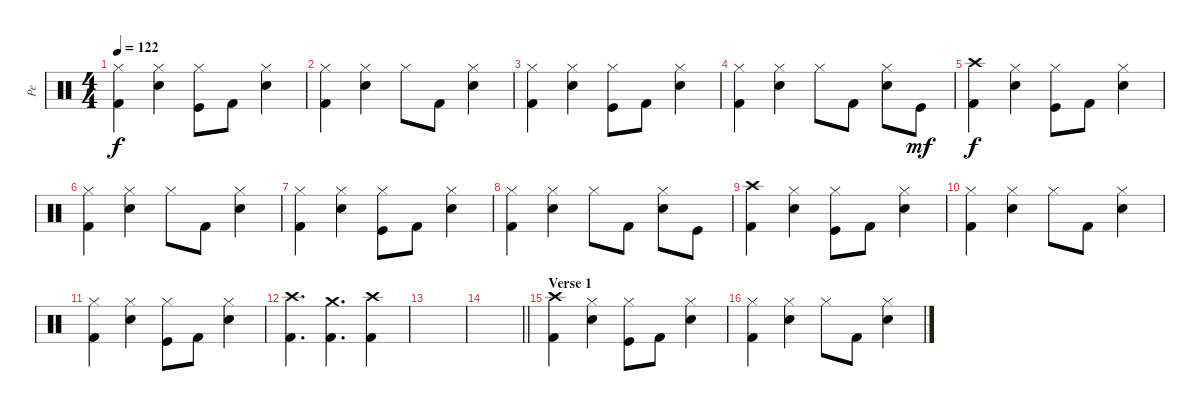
\track ("Pe" "Pe") {instrument percussion}
\staff {score}
\articulation defaults
\ts (4 4)
\tempo 122
\clef neutral
\ks c
("Kick (hit) 2" "Hi-Hat (closed)").4{dy f} ("Electric Snare (hit)" "Hi-Hat (closed)").4 ("Kick (hit)" "Hi-Hat (closed)").8 "Kick (hit) 2".8 ("Electric Snare (hit)" "Hi-Hat (closed)").4 |
("Kick (hit) 2" "Hi-Hat (closed)").4 ("Electric Snare (hit)" "Hi-Hat (closed)").4 "Hi-Hat (closed)".8 "Kick (hit) 2".8 ("Electric Snare (hit)" "Hi-Hat (closed)").4 |
("Kick (hit) 2" "Hi-Hat (closed)").4 ("Electric Snare (hit)" "Hi-Hat (closed)").4 ("Kick (hit)" "Hi-Hat (closed)").8 "Kick (hit) 2".8 ("Electric Snare (hit)" "Hi-Hat (closed)").4 |
("Kick (hit) 2" "Hi-Hat (closed)").4 ("Electric Snare (hit)" "Hi-Hat (closed)").4 "Hi-Hat (closed)".8 "Kick (hit) 2".8 ("Electric Snare (hit)" "Hi-Hat (closed)").8 "Kick (hit)".8{dy mf} |
("Kick (hit) 2" "Crash high (hit)").4{dy f} ("Electric Snare (hit)" "Hi-Hat (closed)").4 ("Kick (hit)" "Hi-Hat (closed)").8 "Kick (hit) 2".8 ("Electric Snare (hit)" "Hi-Hat (closed)").4 |
("Kick (hit) 2" "Hi-Hat (closed)").4 ("Electric Snare (hit)" "Hi-Hat (closed)").4 "Hi-Hat (closed)".8 "Kick (hit) 2".8 ("Electric Snare (hit)" "Hi-Hat (closed)").4 |
("Kick (hit) 2" "Hi-Hat (closed)").4 ("Electric Snare (hit)" "Hi-Hat (closed)").4 ("Kick (hit)" "Hi-Hat (closed)").8 "Kick (hit) 2".8 ("Electric Snare (hit)" "Hi-Hat (closed)").4 |
("Kick (hit) 2" "Hi-Hat (closed)").4 ("Electric Snare (hit)" "Hi-Hat (closed)").4 "Hi-Hat (closed)".8 "Kick (hit) 2".8 ("Electric Snare (hit)" "Hi-Hat (closed)").8 "Kick (hit)".8 |
("Kick (hit) 2" "Crash high (hit)").4 ("Electric Snare (hit)" "Hi-Hat (closed)").4 ("Kick (hit)" "Hi-Hat (closed)").8 "Kick (hit) 2".8 ("Electric Snare (hit)" "Hi-Hat (closed)").4 |
("Kick (hit) 2" "Hi-Hat (closed)").4 ("Electric Snare (hit)" "Hi-Hat (closed)").4 "Hi-Hat (closed)".8 "Kick (hit) 2".8 ("Electric Snare (hit)" "Hi-Hat (closed)").4 |
("Kick (hit) 2" "Hi-Hat (closed)").4 ("Electric Snare (hit)" "Hi-Hat (closed)").4 ("Kick (hit)" "Hi-Hat (closed)").8 "Kick (hit) 2".8 ("Electric Snare (hit)" "Hi-Hat (closed)").4 |
("Kick (hit) 2" "Crash high (hit)").4{d} ("Kick (hit) 2" "Crash medium (hit)").4{d} ("Kick (hit) 2" "Crash high (hit)").4 |
|
\barLineRight lightlight
|
\section ("" "Verse 1")
("Kick (hit) 2" "Crash high (hit)").4 ("Electric Snare (hit)" "Hi-Hat (closed)").4 ("Kick (hit)" "Hi-Hat (closed)").8 "Kick (hit) 2".8 ("Electric Snare (hit)" "Hi-Hat (closed)").4 |
("Kick (hit) 2" "Hi-Hat (closed)").4 ("Electric Snare (hit)" "Hi-Hat (closed)").4 "Hi-Hat (closed)".8 "Kick (hit) 2".8 ("Electric Snare (hit)" "Hi-Hat (closed)").4
